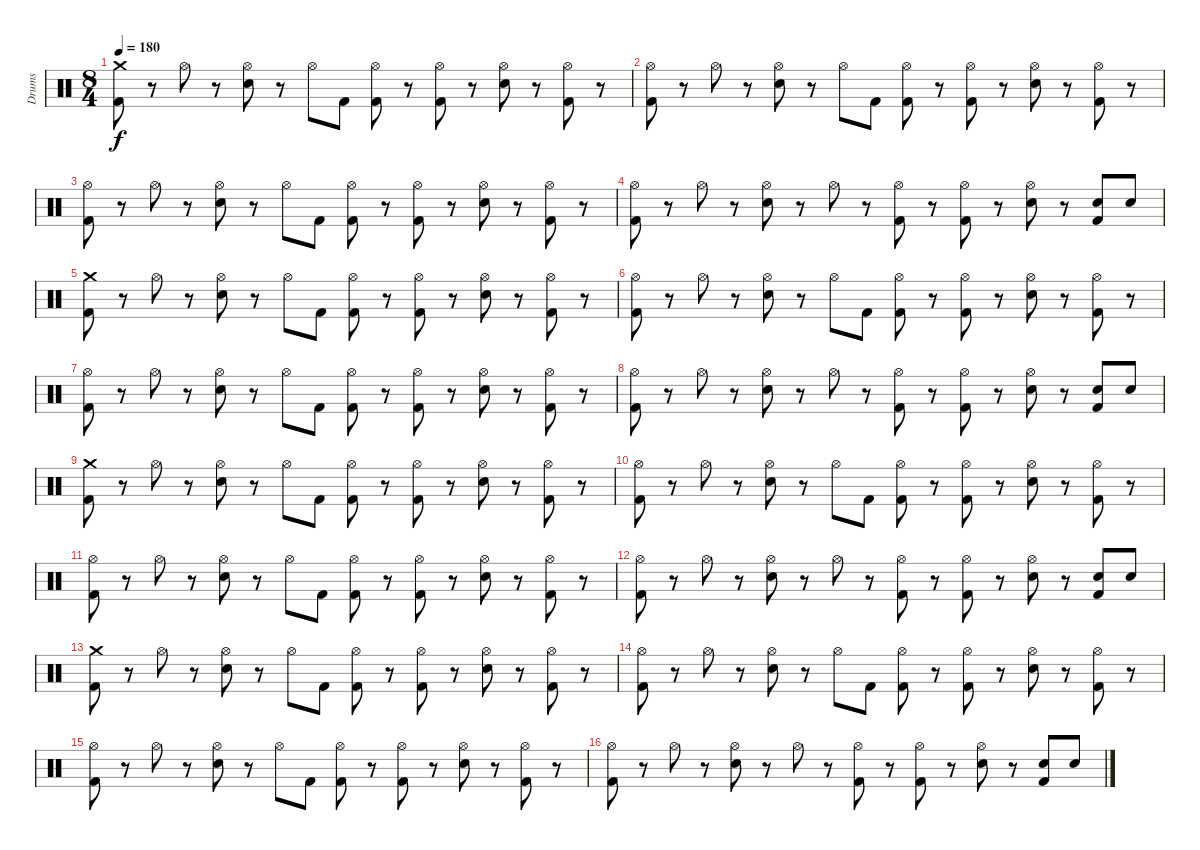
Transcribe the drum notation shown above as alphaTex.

\track ("Drums" "Drums") {instrument percussion}
\staff {score}
\articulation defaults
\ts (8 4)
\tempo 180
\clef neutral
\ks c
("Crash medium (hit)" "Kick (hit) 2").8{dy f} r.8 "Hi-Hat (open)".8 r.8 ("Hi-Hat (open)" "Snare (hit) 2").8 r.8 "Hi-Hat (open)".8 "Kick (hit) 2".8 ("Hi-Hat (open)" "Kick (hit) 2").8 r.8 ("Hi-Hat (open)" "Kick (hit) 2").8 r.8 ("Hi-Hat (open)" "Snare (hit) 2").8 r.8 ("Hi-Hat (open)" "Kick (hit) 2").8 r.8 |
("Hi-Hat (open)" "Kick (hit) 2").8 r.8 "Hi-Hat (open)".8 r.8 ("Hi-Hat (open)" "Snare (hit) 2").8 r.8 "Hi-Hat (open)".8 "Kick (hit) 2".8 ("Hi-Hat (open)" "Kick (hit) 2").8 r.8 ("Hi-Hat (open)" "Kick (hit) 2").8 r.8 ("Hi-Hat (open)" "Snare (hit) 2").8 r.8 ("Hi-Hat (open)" "Kick (hit) 2").8 r.8 |
("Hi-Hat (open)" "Kick (hit) 2").8 r.8 "Hi-Hat (open)".8 r.8 ("Hi-Hat (open)" "Snare (hit) 2").8 r.8 "Hi-Hat (open)".8 "Kick (hit) 2".8 ("Hi-Hat (open)" "Kick (hit) 2").8 r.8 ("Hi-Hat (open)" "Kick (hit) 2").8 r.8 ("Hi-Hat (open)" "Snare (hit) 2").8 r.8 ("Hi-Hat (open)" "Kick (hit) 2").8 r.8 |
("Hi-Hat (open)" "Kick (hit) 2").8 r.8 "Hi-Hat (open)".8 r.8 ("Hi-Hat (open)" "Snare (hit) 2").8 r.8 "Hi-Hat (open)".8 r.8 ("Hi-Hat (open)" "Kick (hit) 2").8 r.8 ("Hi-Hat (open)" "Kick (hit) 2").8 r.8 ("Hi-Hat (open)" "Snare (hit) 2").8 r.8 ("Snare (hit) 2" "Kick (hit) 2").8 "Snare (hit) 2".8 |
("Crash medium (hit)" "Kick (hit) 2").8 r.8 "Hi-Hat (open)".8 r.8 ("Hi-Hat (open)" "Snare (hit) 2").8 r.8 "Hi-Hat (open)".8 "Kick (hit) 2".8 ("Hi-Hat (open)" "Kick (hit) 2").8 r.8 ("Hi-Hat (open)" "Kick (hit) 2").8 r.8 ("Hi-Hat (open)" "Snare (hit) 2").8 r.8 ("Hi-Hat (open)" "Kick (hit) 2").8 r.8 |
("Hi-Hat (open)" "Kick (hit) 2").8 r.8 "Hi-Hat (open)".8 r.8 ("Hi-Hat (open)" "Snare (hit) 2").8 r.8 "Hi-Hat (open)".8 "Kick (hit) 2".8 ("Hi-Hat (open)" "Kick (hit) 2").8 r.8 ("Hi-Hat (open)" "Kick (hit) 2").8 r.8 ("Hi-Hat (open)" "Snare (hit) 2").8 r.8 ("Hi-Hat (open)" "Kick (hit) 2").8 r.8 |
("Hi-Hat (open)" "Kick (hit) 2").8 r.8 "Hi-Hat (open)".8 r.8 ("Hi-Hat (open)" "Snare (hit) 2").8 r.8 "Hi-Hat (open)".8 "Kick (hit) 2".8 ("Hi-Hat (open)" "Kick (hit) 2").8 r.8 ("Hi-Hat (open)" "Kick (hit) 2").8 r.8 ("Hi-Hat (open)" "Snare (hit) 2").8 r.8 ("Hi-Hat (open)" "Kick (hit) 2").8 r.8 |
("Hi-Hat (open)" "Kick (hit) 2").8 r.8 "Hi-Hat (open)".8 r.8 ("Hi-Hat (open)" "Snare (hit) 2").8 r.8 "Hi-Hat (open)".8 r.8 ("Hi-Hat (open)" "Kick (hit) 2").8 r.8 ("Hi-Hat (open)" "Kick (hit) 2").8 r.8 ("Hi-Hat (open)" "Snare (hit) 2").8 r.8 ("Snare (hit) 2" "Kick (hit) 2").8 "Snare (hit) 2".8 |
("Crash medium (hit)" "Kick (hit) 2").8 r.8 "Hi-Hat (open)".8 r.8 ("Hi-Hat (open)" "Snare (hit) 2").8 r.8 "Hi-Hat (open)".8 "Kick (hit) 2".8 ("Hi-Hat (open)" "Kick (hit) 2").8 r.8 ("Hi-Hat (open)" "Kick (hit) 2").8 r.8 ("Hi-Hat (open)" "Snare (hit) 2").8 r.8 ("Hi-Hat (open)" "Kick (hit) 2").8 r.8 |
("Hi-Hat (open)" "Kick (hit) 2").8 r.8 "Hi-Hat (open)".8 r.8 ("Hi-Hat (open)" "Snare (hit) 2").8 r.8 "Hi-Hat (open)".8 "Kick (hit) 2".8 ("Hi-Hat (open)" "Kick (hit) 2").8 r.8 ("Hi-Hat (open)" "Kick (hit) 2").8 r.8 ("Hi-Hat (open)" "Snare (hit) 2").8 r.8 ("Hi-Hat (open)" "Kick (hit) 2").8 r.8 |
("Hi-Hat (open)" "Kick (hit) 2").8{volume 9} r.8 "Hi-Hat (open)".8 r.8 ("Hi-Hat (open)" "Snare (hit) 2").8 r.8 "Hi-Hat (open)".8 "Kick (hit) 2".8 ("Hi-Hat (open)" "Kick (hit) 2").8{volume 8} r.8 ("Hi-Hat (open)" "Kick (hit) 2").8 r.8 ("Hi-Hat (open)" "Snare (hit) 2").8 r.8 ("Hi-Hat (open)" "Kick (hit) 2").8 r.8 |
("Hi-Hat (open)" "Kick (hit) 2").8{volume 7} r.8 "Hi-Hat (open)".8 r.8 ("Hi-Hat (open)" "Snare (hit) 2").8 r.8 "Hi-Hat (open)".8 r.8 ("Hi-Hat (open)" "Kick (hit) 2").8{volume 6} r.8 ("Hi-Hat (open)" "Kick (hit) 2").8 r.8 ("Hi-Hat (open)" "Snare (hit) 2").8 r.8 ("Snare (hit) 2" "Kick (hit) 2").8 "Snare (hit) 2".8 |
("Crash medium (hit)" "Kick (hit) 2").8{volume 5} r.8 "Hi-Hat (open)".8 r.8 ("Hi-Hat (open)" "Snare (hit) 2").8 r.8 "Hi-Hat (open)".8 "Kick (hit) 2".8 ("Hi-Hat (open)" "Kick (hit) 2").8{volume 4} r.8 ("Hi-Hat (open)" "Kick (hit) 2").8 r.8 ("Hi-Hat (open)" "Snare (hit) 2").8 r.8 ("Hi-Hat (open)" "Kick (hit) 2").8 r.8 |
("Hi-Hat (open)" "Kick (hit) 2").8{volume 3} r.8 "Hi-Hat (open)".8 r.8 ("Hi-Hat (open)" "Snare (hit) 2").8 r.8 "Hi-Hat (open)".8 "Kick (hit) 2".8 ("Hi-Hat (open)" "Kick (hit) 2").8{volume 2} r.8 ("Hi-Hat (open)" "Kick (hit) 2").8 r.8 ("Hi-Hat (open)" "Snare (hit) 2").8 r.8 ("Hi-Hat (open)" "Kick (hit) 2").8 r.8 |
("Hi-Hat (open)" "Kick (hit) 2").8{volume 1} r.8 "Hi-Hat (open)".8 r.8 ("Hi-Hat (open)" "Snare (hit) 2").8 r.8 "Hi-Hat (open)".8 "Kick (hit) 2".8 ("Hi-Hat (open)" "Kick (hit) 2").8 r.8 ("Hi-Hat (open)" "Kick (hit) 2").8 r.8 ("Hi-Hat (open)" "Snare (hit) 2").8 r.8 ("Hi-Hat (open)" "Kick (hit) 2").8 r.8 |
("Hi-Hat (open)" "Kick (hit) 2").8{volume 0} r.8 "Hi-Hat (open)".8 r.8 ("Hi-Hat (open)" "Snare (hit) 2").8 r.8 "Hi-Hat (open)".8 r.8 ("Hi-Hat (open)" "Kick (hit) 2").8 r.8 ("Hi-Hat (open)" "Kick (hit) 2").8 r.8 ("Hi-Hat (open)" "Snare (hit) 2").8 r.8 ("Snare (hit) 2" "Kick (hit) 2").8 "Snare (hit) 2".8
